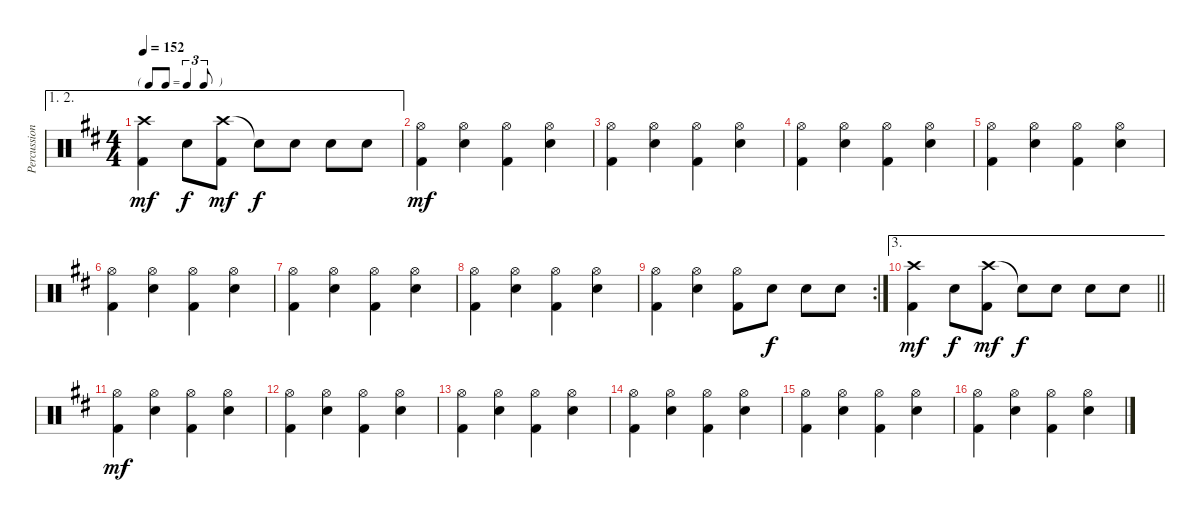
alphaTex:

\track ("Percussion" "Percussion") {instrument percussion}
\staff {score}
\articulation defaults
\ae (1 2)
\ts (4 4)
\tf triplet8th
\tempo 152
\clef neutral
\ks d
("Crash high (hit)" "Kick (hit) 2").4{dy mf} "Snare (hit) 2".8{dy f} ("Crash high (hit)" "Kick (hit) 2").8{dy mf} "Snare (hit)"{t}.8{dy f} "Snare (hit) 2".8 "Snare (hit) 2".8 "Snare (hit) 2".8 |
("Hi-Hat (open)" "Kick (hit) 2").4{dy mf} ("Hi-Hat (open)" "Snare (hit) 2").4 ("Hi-Hat (open)" "Kick (hit) 2").4 ("Hi-Hat (open)" "Snare (hit) 2").4 |
("Hi-Hat (open)" "Kick (hit) 2").4 ("Hi-Hat (open)" "Snare (hit) 2").4 ("Hi-Hat (open)" "Kick (hit) 2").4 ("Hi-Hat (open)" "Snare (hit) 2").4 |
("Hi-Hat (open)" "Kick (hit) 2").4 ("Hi-Hat (open)" "Snare (hit) 2").4 ("Hi-Hat (open)" "Kick (hit) 2").4 ("Hi-Hat (open)" "Snare (hit) 2").4 |
("Hi-Hat (open)" "Kick (hit) 2").4 ("Hi-Hat (open)" "Snare (hit) 2").4 ("Hi-Hat (open)" "Kick (hit) 2").4 ("Hi-Hat (open)" "Snare (hit) 2").4 |
("Hi-Hat (open)" "Kick (hit) 2").4 ("Hi-Hat (open)" "Snare (hit) 2").4 ("Hi-Hat (open)" "Kick (hit) 2").4 ("Hi-Hat (open)" "Snare (hit) 2").4 |
("Hi-Hat (open)" "Kick (hit) 2").4 ("Hi-Hat (open)" "Snare (hit) 2").4 ("Hi-Hat (open)" "Kick (hit) 2").4 ("Hi-Hat (open)" "Snare (hit) 2").4 |
("Hi-Hat (open)" "Kick (hit) 2").4 ("Hi-Hat (open)" "Snare (hit) 2").4 ("Hi-Hat (open)" "Kick (hit) 2").4 ("Hi-Hat (open)" "Snare (hit) 2").4 |
\rc 2
("Hi-Hat (open)" "Kick (hit) 2").4 ("Hi-Hat (open)" "Snare (hit) 2").4 ("Hi-Hat (open)" "Kick (hit) 2").8 "Snare (hit) 2".8{dy f} "Snare (hit) 2".8 "Snare (hit) 2".8 |
\ae 3
\barLineRight lightlight
("Crash high (hit)" "Kick (hit) 2").4{dy mf} "Snare (hit) 2".8{dy f} ("Crash high (hit)" "Kick (hit) 2").8{dy mf} "Snare (hit)"{t}.8{dy f} "Snare (hit) 2".8 "Snare (hit) 2".8 "Snare (hit) 2".8 |
("Hi-Hat (open)" "Kick (hit) 2").4{dy mf} ("Hi-Hat (open)" "Snare (hit) 2").4 ("Hi-Hat (open)" "Kick (hit) 2").4 ("Hi-Hat (open)" "Snare (hit) 2").4 |
("Hi-Hat (open)" "Kick (hit) 2").4 ("Hi-Hat (open)" "Snare (hit) 2").4 ("Hi-Hat (open)" "Kick (hit) 2").4 ("Hi-Hat (open)" "Snare (hit) 2").4 |
("Hi-Hat (open)" "Kick (hit) 2").4 ("Hi-Hat (open)" "Snare (hit) 2").4 ("Hi-Hat (open)" "Kick (hit) 2").4 ("Hi-Hat (open)" "Snare (hit) 2").4 |
("Hi-Hat (open)" "Kick (hit) 2").4 ("Hi-Hat (open)" "Snare (hit) 2").4 ("Hi-Hat (open)" "Kick (hit) 2").4 ("Hi-Hat (open)" "Snare (hit) 2").4 |
("Hi-Hat (open)" "Kick (hit) 2").4 ("Hi-Hat (open)" "Snare (hit) 2").4 ("Hi-Hat (open)" "Kick (hit) 2").4 ("Hi-Hat (open)" "Snare (hit) 2").4 |
("Hi-Hat (open)" "Kick (hit) 2").4 ("Hi-Hat (open)" "Snare (hit) 2").4 ("Hi-Hat (open)" "Kick (hit) 2").4 ("Hi-Hat (open)" "Snare (hit) 2").4
